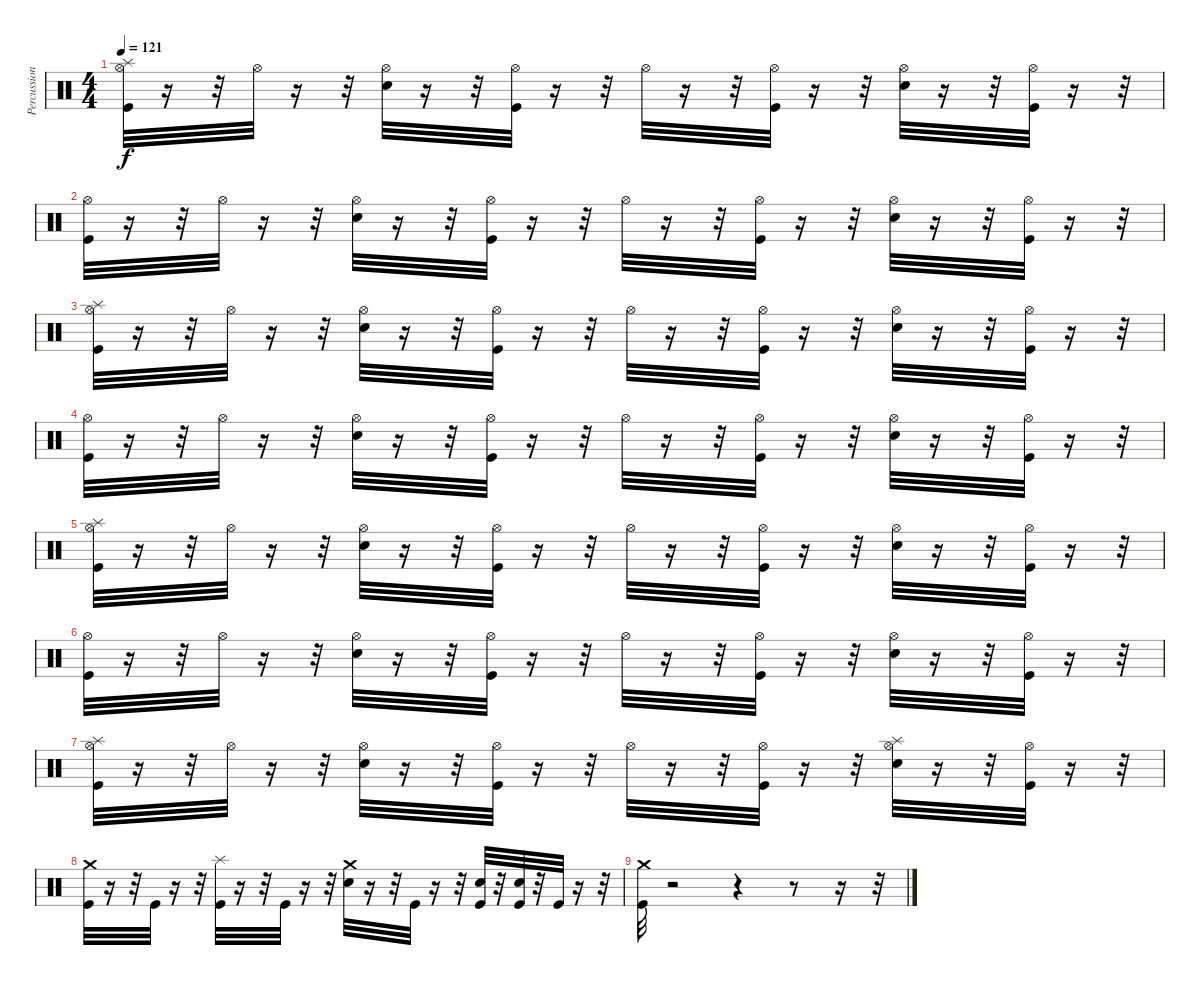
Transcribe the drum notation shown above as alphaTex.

\track ("Percussion" "Percussion") {instrument percussion}
\staff {score}
\articulation defaults
\ts (4 4)
\tempo 121
\clef neutral
\ks c
("Hi-Hat (open)" "Splash (hit)" "Kick (hit)").32{dy f} r.16 r.32 "Hi-Hat (open)".32 r.16 r.32 ("Hi-Hat (open)" "Snare (hit) 2").32 r.16 r.32 ("Hi-Hat (open)" "Kick (hit)").32 r.16 r.32 "Hi-Hat (open)".32 r.16 r.32 ("Hi-Hat (open)" "Kick (hit)").32 r.16 r.32 ("Hi-Hat (open)" "Snare (hit) 2").32 r.16 r.32 ("Hi-Hat (open)" "Kick (hit)").32 r.16 r.32 |
("Hi-Hat (open)" "Kick (hit)").32 r.16 r.32 "Hi-Hat (open)".32 r.16 r.32 ("Snare (hit) 2" "Hi-Hat (open)").32 r.16 r.32 ("Kick (hit)" "Hi-Hat (open)").32 r.16 r.32 "Hi-Hat (open)".32 r.16 r.32 ("Kick (hit)" "Hi-Hat (open)").32 r.16 r.32 ("Hi-Hat (open)" "Snare (hit) 2").32 r.16 r.32 ("Kick (hit)" "Hi-Hat (open)").32 r.16 r.32 |
("Hi-Hat (open)" "Splash (hit)" "Kick (hit)").32 r.16 r.32 "Hi-Hat (open)".32 r.16 r.32 ("Hi-Hat (open)" "Snare (hit) 2").32 r.16 r.32 ("Hi-Hat (open)" "Kick (hit)").32 r.16 r.32 "Hi-Hat (open)".32 r.16 r.32 ("Hi-Hat (open)" "Kick (hit)").32 r.16 r.32 ("Hi-Hat (open)" "Snare (hit) 2").32 r.16 r.32 ("Hi-Hat (open)" "Kick (hit)").32 r.16 r.32 |
("Hi-Hat (open)" "Kick (hit)").32 r.16 r.32 "Hi-Hat (open)".32 r.16 r.32 ("Snare (hit) 2" "Hi-Hat (open)").32 r.16 r.32 ("Kick (hit)" "Hi-Hat (open)").32 r.16 r.32 "Hi-Hat (open)".32 r.16 r.32 ("Kick (hit)" "Hi-Hat (open)").32 r.16 r.32 ("Hi-Hat (open)" "Snare (hit) 2").32 r.16 r.32 ("Kick (hit)" "Hi-Hat (open)").32 r.16 r.32 |
("Hi-Hat (open)" "Splash (hit)" "Kick (hit)").32 r.16 r.32 "Hi-Hat (open)".32 r.16 r.32 ("Hi-Hat (open)" "Snare (hit) 2").32 r.16 r.32 ("Hi-Hat (open)" "Kick (hit)").32 r.16 r.32 "Hi-Hat (open)".32 r.16 r.32 ("Hi-Hat (open)" "Kick (hit)").32 r.16 r.32 ("Hi-Hat (open)" "Snare (hit) 2").32 r.16 r.32 ("Hi-Hat (open)" "Kick (hit)").32 r.16 r.32 |
("Hi-Hat (open)" "Kick (hit)").32 r.16 r.32 "Hi-Hat (open)".32 r.16 r.32 ("Snare (hit) 2" "Hi-Hat (open)").32 r.16 r.32 ("Kick (hit)" "Hi-Hat (open)").32 r.16 r.32 "Hi-Hat (open)".32 r.16 r.32 ("Kick (hit)" "Hi-Hat (open)").32 r.16 r.32 ("Hi-Hat (open)" "Snare (hit) 2").32 r.16 r.32 ("Kick (hit)" "Hi-Hat (open)").32 r.16 r.32 |
("Hi-Hat (open)" "Splash (hit)" "Kick (hit)").32 r.16 r.32 "Hi-Hat (open)".32 r.16 r.32 ("Hi-Hat (open)" "Snare (hit) 2").32 r.16 r.32 ("Hi-Hat (open)" "Kick (hit)").32 r.16 r.32 "Hi-Hat (open)".32 r.16 r.32 ("Hi-Hat (open)" "Kick (hit)").32 r.16 r.32 ("Splash (hit)" "Hi-Hat (open)" "Snare (hit) 2").32 r.16 r.32 ("Hi-Hat (open)" "Kick (hit)").32 r.16 r.32 |
("Crash medium (hit)" "Kick (hit)").32 r.16 r.32 "Kick (hit)".32 r.16 r.32 ("Splash (hit)" "Kick (hit)").32 r.16 r.32 "Kick (hit)".32 r.16 r.32 ("Crash medium (hit)" "Snare (hit) 2").32 r.16 r.32 "Kick (hit)".32 r.16 r.32 ("Kick (hit)" "Snare (hit) 2").32 r.32 ("Kick (hit)" "Snare (hit) 2").32 r.32 "Kick (hit)".32 r.16 r.32 |
("Kick (hit)" "Crash medium (hit)").32 r.2 r.4 r.8 r.16 r.32
